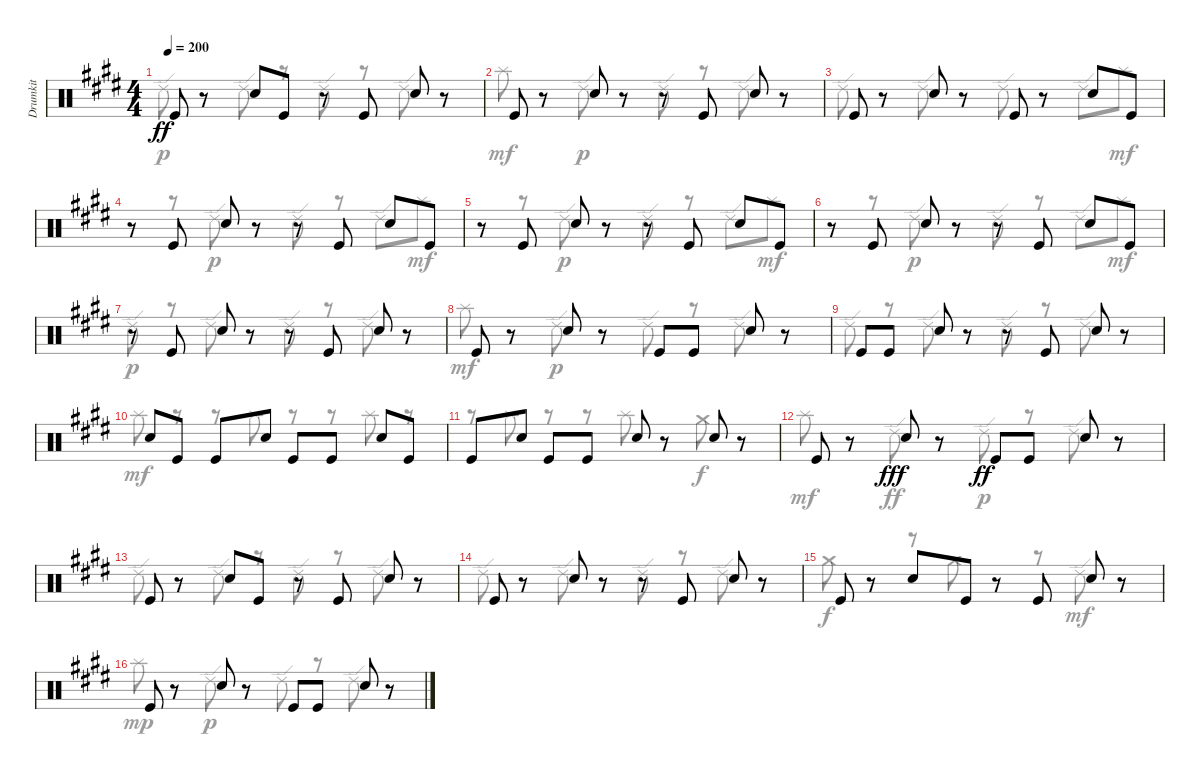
\track ("Drumkit" "Drumkit") {instrument percussion}
\staff {score}
\articulation defaults
\voice
\ts (4 4)
\tempo 200
\clef neutral
\ks c#minor "Kick (hit)".8{dy ff}
r.8 "Snare (hit) 2".8 "Kick (hit)".8 r.8 "Kick (hit)".8 "Snare (hit) 2".8 r.8 |
"Kick (hit)".8 r.8 "Snare (hit) 2".8 r.8 r.8 "Kick (hit)".8 "Snare (hit) 2".8 r.8 |
"Kick (hit)".8 r.8 "Snare (hit) 2".8 r.8 "Kick (hit)".8 r.8 "Snare (hit) 2".8 "Kick (hit)".8 |
r.8 "Kick (hit)".8 "Snare (hit) 2".8 r.8 r.8 "Kick (hit)".8 "Snare (hit) 2".8 "Kick (hit)".8 |
r.8 "Kick (hit)".8 "Snare (hit) 2".8 r.8 r.8 "Kick (hit)".8 "Snare (hit) 2".8 "Kick (hit)".8 |
r.8 "Kick (hit)".8 "Snare (hit) 2".8 r.8 r.8 "Kick (hit)".8 "Snare (hit) 2".8 "Kick (hit)".8 |
r.8 "Kick (hit)".8 "Snare (hit) 2".8 r.8 r.8 "Kick (hit)".8 "Snare (hit) 2".8 r.8 |
"Kick (hit)".8 r.8 "Snare (hit) 2".8 r.8 "Kick (hit)".8 "Kick (hit)".8 "Snare (hit) 2".8 r.8 |
"Kick (hit)".8 "Kick (hit)".8 "Snare (hit) 2".8 r.8 r.8 "Kick (hit)".8 "Snare (hit) 2".8 r.8 |
"Snare (hit) 2".8 "Kick (hit)".8 "Kick (hit)".8 "Snare (hit) 2".8 "Kick (hit)".8 "Kick (hit)".8 "Snare (hit) 2".8 "Kick (hit)".8 |
"Kick (hit)".8 "Snare (hit) 2".8 "Kick (hit)".8 "Kick (hit)".8 "Snare (hit) 2".8 r.8 "Snare (hit) 2".8 r.8 |
"Kick (hit)".8 r.8 "Snare (hit) 2".8{dy fff} r.8 "Kick (hit)".8{dy ff} "Kick (hit)".8 "Snare (hit) 2".8 r.8 |
"Kick (hit)".8 r.8 "Snare (hit) 2".8 "Kick (hit)".8 r.8 "Kick (hit)".8 "Snare (hit) 2".8 r.8 |
"Kick (hit)".8 r.8 "Snare (hit) 2".8 r.8 r.8 "Kick (hit)".8 "Snare (hit) 2".8 r.8 |
"Kick (hit)".8 r.8 "Snare (hit) 2".8 "Kick (hit)".8 r.8 "Kick (hit)".8 "Snare (hit) 2".8 r.8 |
"Kick (hit)".8 r.8 "Snare (hit) 2".8 r.8 "Kick (hit)".8 "Kick (hit)".8 "Snare (hit) 2".8 r.8
\voice
\clef neutral
\ottava regular
\simile none
\ks c#minor "Ride (edge) 2".8{dy p}
r.8 "Ride (edge) 2".8 r.8 "Ride (edge) 2".8 r.8 "Ride (edge) 2".8 r.8 |
"Splash (hit)".8{dy mf} r.8 "Ride (edge) 2".8{dy p} r.8 "Ride (edge) 2".8 r.8 "Ride (edge) 2".8 r.8 |
"Ride (edge) 2".8 r.8 "Ride (edge) 2".8 r.8 "Ride (edge) 2".8 r.8 "Ride (edge) 2".8 "Splash (hit)".8{dy mf} |
r.8 r.8 "Ride (edge) 2".8{dy p} r.8 "Ride (edge) 2".8 r.8 "Ride (edge) 2".8 "Splash (hit)".8{dy mf} |
r.8 r.8 "Ride (edge) 2".8{dy p} r.8 "Ride (edge) 2".8 r.8 "Ride (edge) 2".8 "Splash (hit)".8{dy mf} |
r.8 r.8 "Ride (edge) 2".8{dy p} r.8 "Ride (edge) 2".8 r.8 "Ride (edge) 2".8 "Splash (hit)".8{dy mf} |
"Ride (edge) 2".8{dy p} r.8 "Ride (edge) 2".8 r.8 "Ride (edge) 2".8 r.8 "Ride (edge) 2".8 r.8 |
"Splash (hit)".8{dy mf} r.8 "Ride (edge) 2".8{dy p} r.8 "Ride (edge) 2".8 r.8 "Ride (edge) 2".8 r.8 |
"Ride (edge) 2".8 r.8 "Ride (edge) 2".8 r.8 "Ride (edge) 2".8 r.8 "Ride (edge) 2".8 r.8 |
"Splash (hit)".8{dy mf} r.8 r.8 "Splash (hit)".8 r.8 r.8 "Splash (hit)".8 r.8 |
r.8 "Splash (hit)".8 r.8 r.8 "Splash (hit)".8 r.8 "Crash medium (hit)".8{dy f} r.8 |
"Splash (hit)".8{dy mf} r.8 "Ride (edge) 2".8{dy ff} r.8 "Ride (edge) 2".8{dy p} r.8 "Ride (edge) 2".8 r.8 |
"Ride (edge) 2".8 r.8 "Ride (edge) 2".8 r.8 "Ride (edge) 2".8 r.8 "Ride (edge) 2".8 r.8 |
"Ride (edge) 2".8 r.8 "Ride (edge) 2".8 r.8 "Ride (edge) 2".8 r.8 "Ride (edge) 2".8 r.8 |
"Crash medium (hit)".8{dy f} r.8 r.8 "Crash medium (hit)".8 r.8 r.8 "Ride (edge) 2".8{dy mf} r.8 |
"Splash (hit)".8{dy mp} r.8 "Ride (edge) 2".8{dy p} r.8 "Ride (edge) 2".8 r.8 "Ride (edge) 2".8 r.8
